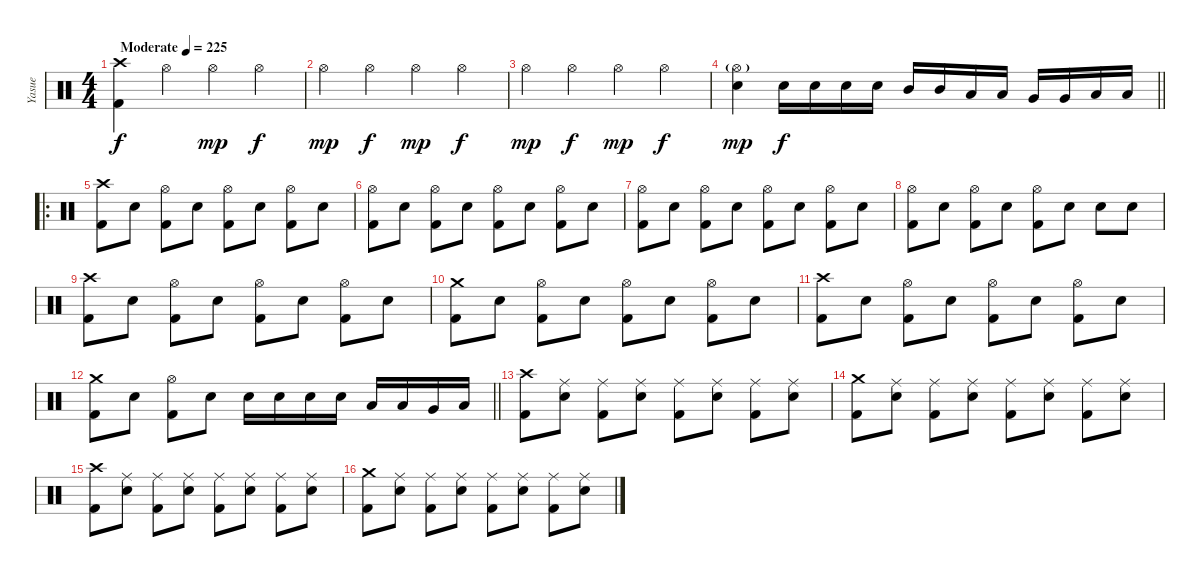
\track ("Yasue" "Yasue") {instrument percussion}
\staff {score}
\articulation defaults
\ts (4 4)
\tempo (225 "Moderate")
\clef neutral
\ks c
("Crash high (hit)" "Kick (hit) 2").4{dy f} "Hi-Hat (open)".4 "Hi-Hat (open)".4{dy mp} "Hi-Hat (open)".4{dy f} |
"Hi-Hat (open)".4{dy mp} "Hi-Hat (open)".4{dy f} "Hi-Hat (open)".4{dy mp} "Hi-Hat (open)".4{dy f} |
"Hi-Hat (open)".4{dy mp} "Hi-Hat (open)".4{dy f} "Hi-Hat (open)".4{dy mp} "Hi-Hat (open)".4{dy f} |
\barLineRight lightlight
("Hi-Hat (open)"{g} "Electric Snare (hit)").4{dy mp} "Electric Snare (hit)".16{dy f} "Electric Snare (hit)".16 "Electric Snare (hit)".16 "Electric Snare (hit)".16 "Mid Tom (hit)".16 "Mid Tom (hit)".16 "Low Tom (hit)".16 "Low Tom (hit)".16 "Very Low Tom (hit)".16 "Very Low Tom (hit)".16 "Low Floor Tom (hit)".16 "Low Floor Tom (hit)".16 |
\ro
\section ("" "")
("Crash high (hit)" "Kick (hit) 2").8 "Electric Snare (hit)".8 ("Hi-Hat (open)" "Kick (hit) 2").8 "Electric Snare (hit)".8 ("Hi-Hat (open)" "Kick (hit) 2").8 "Electric Snare (hit)".8 ("Hi-Hat (open)" "Kick (hit) 2").8 "Electric Snare (hit)".8 |
("Hi-Hat (open)" "Kick (hit) 2").8 "Electric Snare (hit)".8 ("Hi-Hat (open)" "Kick (hit) 2").8 "Electric Snare (hit)".8 ("Hi-Hat (open)" "Kick (hit) 2").8 "Electric Snare (hit)".8 ("Hi-Hat (open)" "Kick (hit) 2").8 "Electric Snare (hit)".8 |
("Hi-Hat (open)" "Kick (hit) 2").8 "Electric Snare (hit)".8 ("Hi-Hat (open)" "Kick (hit) 2").8 "Electric Snare (hit)".8 ("Hi-Hat (open)" "Kick (hit) 2").8 "Electric Snare (hit)".8 ("Hi-Hat (open)" "Kick (hit) 2").8 "Electric Snare (hit)".8 |
("Hi-Hat (open)" "Kick (hit) 2").8 "Electric Snare (hit)".8 ("Hi-Hat (open)" "Kick (hit) 2").8 "Electric Snare (hit)".8 ("Hi-Hat (open)" "Kick (hit) 2").8 "Electric Snare (hit)".8 "Electric Snare (hit)".8 "Electric Snare (hit)".8 |
("Crash high (hit)" "Kick (hit) 2").8 "Electric Snare (hit)".8 ("Hi-Hat (open)" "Kick (hit) 2").8 "Electric Snare (hit)".8 ("Hi-Hat (open)" "Kick (hit) 2").8 "Electric Snare (hit)".8 ("Hi-Hat (open)" "Kick (hit) 2").8 "Electric Snare (hit)".8 |
("Crash medium (hit)" "Kick (hit) 2").8 "Electric Snare (hit)".8 ("Hi-Hat (open)" "Kick (hit) 2").8 "Electric Snare (hit)".8 ("Hi-Hat (open)" "Kick (hit) 2").8 "Electric Snare (hit)".8 ("Hi-Hat (open)" "Kick (hit) 2").8 "Electric Snare (hit)".8 |
("Crash high (hit)" "Kick (hit) 2").8 "Electric Snare (hit)".8 ("Hi-Hat (open)" "Kick (hit) 2").8 "Electric Snare (hit)".8 ("Hi-Hat (open)" "Kick (hit) 2").8 "Electric Snare (hit)".8 ("Hi-Hat (open)" "Kick (hit) 2").8 "Electric Snare (hit)".8 |
\barLineRight lightlight
("Crash medium (hit)" "Kick (hit) 2").8 "Electric Snare (hit)".8 ("Hi-Hat (open)" "Kick (hit) 2").8 "Electric Snare (hit)".8 "Electric Snare (hit)".16 "Electric Snare (hit)".16 "Electric Snare (hit)".16 "Electric Snare (hit)".16 "Low Tom (hit)".16 "Low Tom (hit)".16 "Very Low Tom (hit)".16 "Low Floor Tom (hit)".16 |
\section ("" "")
("Crash high (hit)" "Kick (hit) 2").8 ("Ride (middle)" "Electric Snare (hit)").8 ("Ride (middle)" "Kick (hit) 2").8 ("Ride (middle)" "Electric Snare (hit)").8 ("Ride (middle)" "Kick (hit) 2").8 ("Ride (middle)" "Electric Snare (hit)").8 ("Ride (middle)" "Kick (hit) 2").8 ("Ride (middle)" "Electric Snare (hit)").8 |
("Crash medium (hit)" "Kick (hit) 2").8 ("Ride (middle)" "Electric Snare (hit)").8 ("Ride (middle)" "Kick (hit) 2").8 ("Ride (middle)" "Electric Snare (hit)").8 ("Ride (middle)" "Kick (hit) 2").8 ("Ride (middle)" "Electric Snare (hit)").8 ("Ride (middle)" "Kick (hit) 2").8 ("Ride (middle)" "Electric Snare (hit)").8 |
("Crash high (hit)" "Kick (hit) 2").8 ("Ride (middle)" "Electric Snare (hit)").8 ("Ride (middle)" "Kick (hit) 2").8 ("Ride (middle)" "Electric Snare (hit)").8 ("Ride (middle)" "Kick (hit) 2").8 ("Ride (middle)" "Electric Snare (hit)").8 ("Ride (middle)" "Kick (hit) 2").8 ("Ride (middle)" "Electric Snare (hit)").8 |
("Crash medium (hit)" "Kick (hit) 2").8 ("Ride (middle)" "Electric Snare (hit)").8 ("Ride (middle)" "Kick (hit) 2").8 ("Ride (middle)" "Electric Snare (hit)").8 ("Ride (middle)" "Kick (hit) 2").8 ("Ride (middle)" "Electric Snare (hit)").8 ("Ride (middle)" "Kick (hit) 2").8 ("Ride (middle)" "Electric Snare (hit)").8
